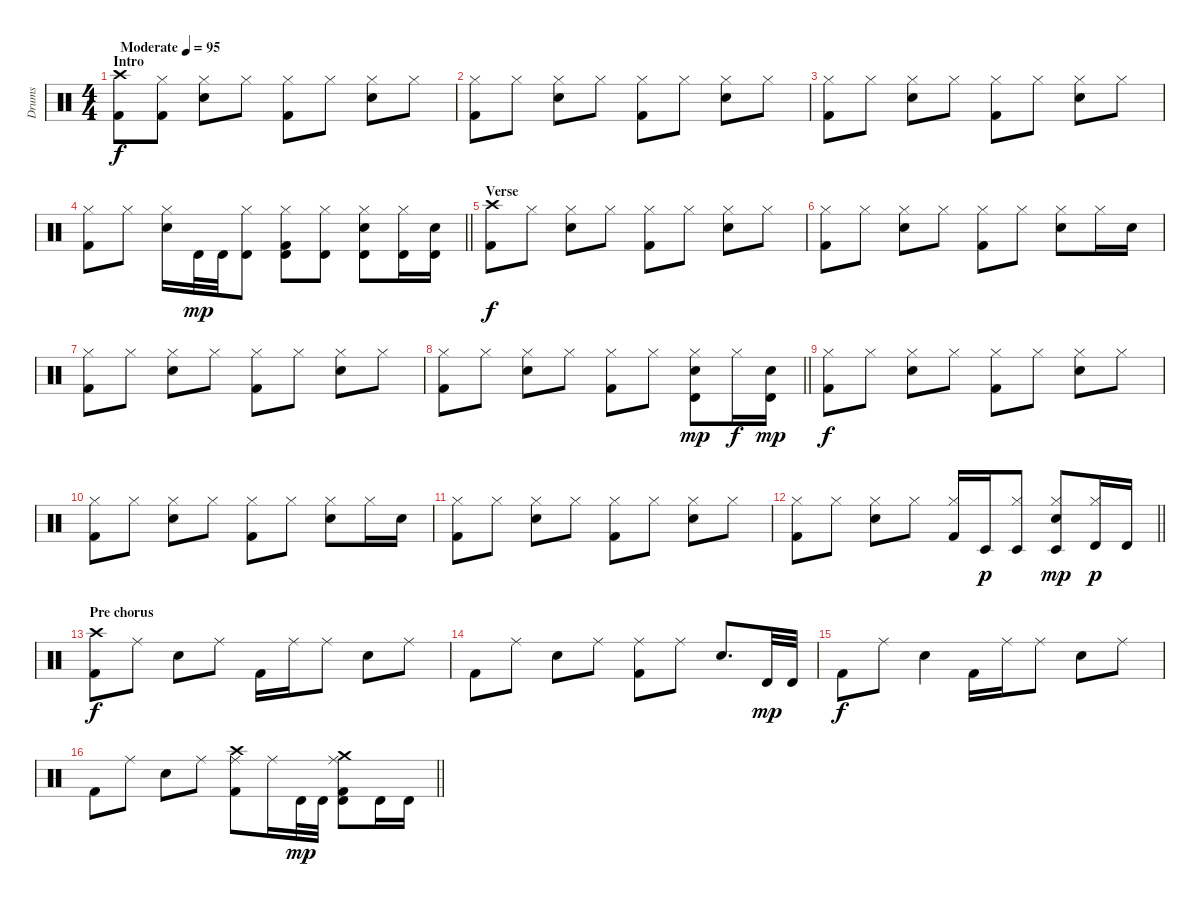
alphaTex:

\track ("Drums" "Drums") {instrument percussion}
\staff {score}
\articulation defaults
\ts (4 4)
\section ("" "Intro")
\tempo (95 "Moderate")
\clef neutral
\ks c
("Crash high (hit)" "Kick (hit) 2").8{dy f} ("Hi-Hat (closed)" "Kick (hit) 2").8 ("Hi-Hat (closed)" "Snare (hit) 2").8 "Hi-Hat (closed)".8 ("Hi-Hat (closed)" "Kick (hit) 2").8 "Hi-Hat (closed)".8 ("Hi-Hat (closed)" "Snare (hit) 2").8 "Hi-Hat (closed)".8 |
("Hi-Hat (closed)" "Kick (hit) 2").8 "Hi-Hat (closed)".8 ("Hi-Hat (closed)" "Snare (hit) 2").8 "Hi-Hat (closed)".8 ("Hi-Hat (closed)" "Kick (hit) 2").8 "Hi-Hat (closed)".8 ("Hi-Hat (closed)" "Snare (hit) 2").8 "Hi-Hat (closed)".8 |
("Hi-Hat (closed)" "Kick (hit) 2").8 "Hi-Hat (closed)".8 ("Hi-Hat (closed)" "Snare (hit) 2").8 "Hi-Hat (closed)".8 ("Hi-Hat (closed)" "Kick (hit) 2").8 "Hi-Hat (closed)".8 ("Hi-Hat (closed)" "Snare (hit) 2").8 "Hi-Hat (closed)".8 |
\barLineRight lightlight
("Hi-Hat (closed)" "Kick (hit) 2").8 "Hi-Hat (closed)".8 ("Hi-Hat (closed)" "Snare (hit) 2").16 "Timbale high (hit)".32{dy mp} "Timbale high (hit)".32 ("Hi-Hat (closed)" "Timbale high (hit)").8 ("Hi-Hat (closed)" "Timbale high (hit)" "Kick (hit) 2").8 ("Hi-Hat (closed)" "Timbale high (hit)").8 ("Hi-Hat (closed)" "Timbale high (hit)" "Snare (hit) 2").8 ("Hi-Hat (closed)" "Timbale high (hit)").16 ("Timbale high (hit)" "Snare (hit) 2").16 |
\section ("" "Verse")
("Crash high (hit)" "Kick (hit) 2").8{dy f} "Hi-Hat (closed)".8 ("Hi-Hat (closed)" "Snare (hit) 2").8 "Hi-Hat (closed)".8 ("Hi-Hat (closed)" "Kick (hit) 2").8 "Hi-Hat (closed)".8 ("Hi-Hat (closed)" "Snare (hit) 2").8 "Hi-Hat (closed)".8 |
("Hi-Hat (closed)" "Kick (hit) 2").8 "Hi-Hat (closed)".8 ("Hi-Hat (closed)" "Snare (hit) 2").8 "Hi-Hat (closed)".8 ("Hi-Hat (closed)" "Kick (hit) 2").8 "Hi-Hat (closed)".8 ("Hi-Hat (closed)" "Snare (hit) 2").8 "Hi-Hat (closed)".16 "Snare (hit) 2".16 |
("Hi-Hat (closed)" "Kick (hit) 2").8 "Hi-Hat (closed)".8 ("Hi-Hat (closed)" "Snare (hit) 2").8 "Hi-Hat (closed)".8 ("Hi-Hat (closed)" "Kick (hit) 2").8 "Hi-Hat (closed)".8 ("Hi-Hat (closed)" "Snare (hit) 2").8 "Hi-Hat (closed)".8 |
\barLineRight lightlight
("Hi-Hat (closed)" "Kick (hit) 2").8 "Hi-Hat (closed)".8 ("Hi-Hat (closed)" "Snare (hit) 2").8 "Hi-Hat (closed)".8 ("Hi-Hat (closed)" "Kick (hit) 2").8 "Hi-Hat (closed)".8 ("Hi-Hat (closed)" "Snare (hit) 2" "Timbale high (hit)").8{dy mp} "Hi-Hat (closed)".16{dy f} ("Snare (hit) 2" "Timbale high (hit)").16{dy mp} |
("Hi-Hat (closed)" "Kick (hit) 2").8{dy f} "Hi-Hat (closed)".8 ("Hi-Hat (closed)" "Snare (hit) 2").8 "Hi-Hat (closed)".8 ("Hi-Hat (closed)" "Kick (hit) 2").8 "Hi-Hat (closed)".8 ("Hi-Hat (closed)" "Snare (hit) 2").8 "Hi-Hat (closed)".8 |
("Hi-Hat (closed)" "Kick (hit) 2").8 "Hi-Hat (closed)".8 ("Hi-Hat (closed)" "Snare (hit) 2").8 "Hi-Hat (closed)".8 ("Hi-Hat (closed)" "Kick (hit) 2").8 "Hi-Hat (closed)".8 ("Hi-Hat (closed)" "Snare (hit) 2").8 "Hi-Hat (closed)".16 "Snare (hit) 2".16 |
("Hi-Hat (closed)" "Kick (hit) 2").8 "Hi-Hat (closed)".8 ("Hi-Hat (closed)" "Snare (hit) 2").8 "Hi-Hat (closed)".8 ("Hi-Hat (closed)" "Kick (hit) 2").8 "Hi-Hat (closed)".8 ("Hi-Hat (closed)" "Snare (hit) 2").8 "Hi-Hat (closed)".8 |
\barLineRight lightlight
("Hi-Hat (closed)" "Kick (hit) 2").8 "Hi-Hat (closed)".8 ("Hi-Hat (closed)" "Snare (hit) 2").8 "Hi-Hat (closed)".8 ("Hi-Hat (closed)" "Kick (hit) 2").16 "Timbale low (hit)".16{dy p} ("Hi-Hat (closed)" "Timbale low (hit)").8 ("Hi-Hat (closed)" "Timbale low (hit)" "Snare (hit) 2").8{dy mp} ("Hi-Hat (closed)" "Timbale high (hit)").16{dy p} "Timbale high (hit)".16 |
\section ("" "Pre chorus")
("Crash high (hit)" "Kick (hit) 2").8{dy f} "Ride (middle)".8 "Snare (hit) 2".8 "Ride (middle)".8 "Kick (hit) 2".16 "Ride (middle)".16 "Ride (middle)".8 "Snare (hit) 2".8 "Ride (middle)".8 |
"Kick (hit) 2".8 "Ride (middle)".8 "Snare (hit) 2".8 "Ride (middle)".8 ("Ride (middle)" "Kick (hit) 2").8 "Ride (middle)".8 "Snare (hit) 2".8{d} "Timbale high (hit)".32{dy mp} "Timbale high (hit)".32 |
"Kick (hit) 2".8{dy f} "Ride (middle)".8 "Snare (hit) 2".4 "Kick (hit) 2".16 "Ride (middle)".16 "Ride (middle)".8 "Snare (hit) 2".8 "Ride (middle)".8 |
\barLineRight lightlight "Kick (hit) 2".8 "Ride (middle)".8 "Snare (hit) 2".8 "Ride (middle)".8
("Crash high (hit)" "Ride (middle)" "Kick (hit) 2").8 "Ride (middle)".16 "Timbale high (hit)".32{dy mp} "Timbale high (hit)".32 ("Crash medium (hit)" "Ride (middle)" "Timbale high (hit)" "Kick (hit) 2").8 "Timbale high (hit)".16 "Timbale high (hit)".16
